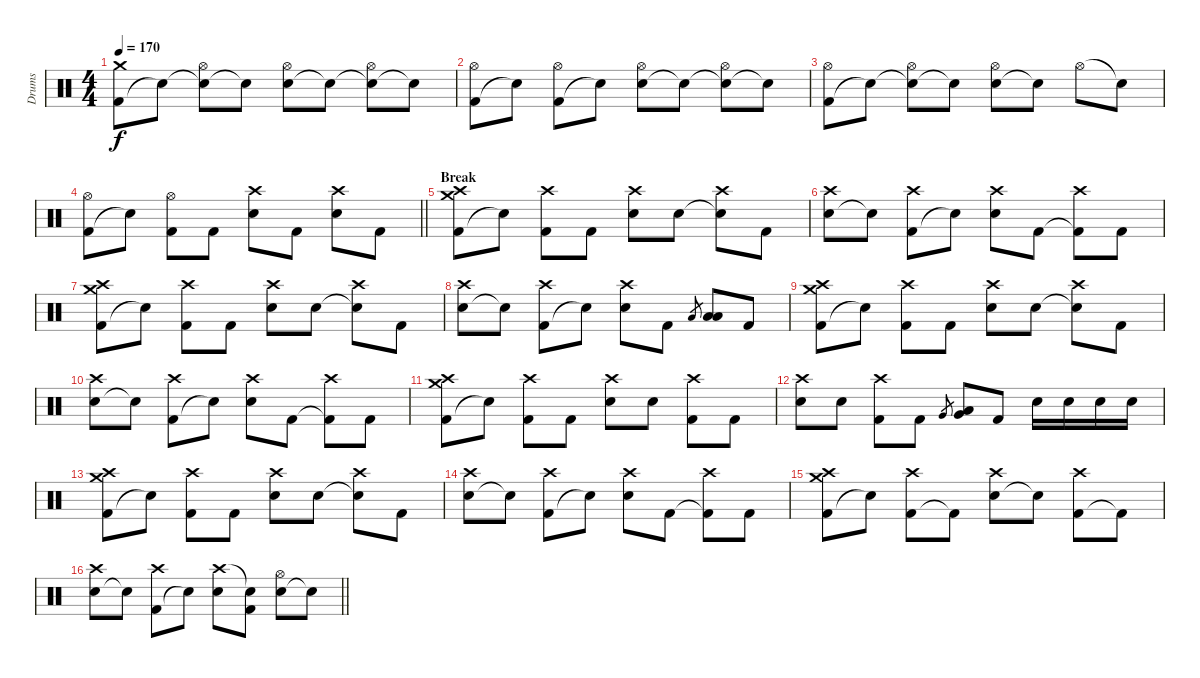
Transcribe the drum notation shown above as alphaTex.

\track ("Drums" "Drums") {instrument percussion}
\staff {score}
\articulation defaults
\ts (4 4)
\tempo 170
\clef neutral
\ks c
("Kick (hit) 2" "Crash medium (hit)").8{dy f} "Snare (hit)"{t}.8 ("Snare (hit)"{t} "Hi-Hat (open)").8 "Snare (hit)"{t}.8 ("Electric Snare (hit)" "Hi-Hat (open)").8 "Snare (hit)"{t}.8 ("Snare (hit)"{t} "Hi-Hat (open)").8 "Snare (hit)"{t}.8 |
("Kick (hit) 2" "Hi-Hat (open)").8 "Snare (hit)"{t}.8 ("Kick (hit) 2" "Hi-Hat (open)").8 "Snare (hit)"{t}.8 ("Electric Snare (hit)" "Hi-Hat (open)").8 "Snare (hit)"{t}.8 ("Snare (hit)"{t} "Hi-Hat (open)").8 "Snare (hit)"{t}.8 |
("Kick (hit) 2" "Hi-Hat (open)").8 "Snare (hit)"{t}.8 ("Snare (hit)"{t} "Hi-Hat (open)").8 "Snare (hit)"{t}.8 ("Electric Snare (hit)" "Hi-Hat (open)").8 "Snare (hit)"{t}.8 "Hi-Hat (open)".8 "Snare (hit)"{t}.8 |
\barLineRight lightlight
("Kick (hit) 2" "Hi-Hat (open)").8 "Snare (hit)"{t}.8 ("Kick (hit) 2" "Hi-Hat (open)").8 "Kick (hit) 2".8 ("Electric Snare (hit)" "Crash high (hit)").8 "Kick (hit) 2".8 ("Electric Snare (hit)" "Crash high (hit)").8 "Kick (hit) 2".8 |
\section ("" "Break")
("Kick (hit) 2" "Crash medium (hit)" "Crash high (hit)").8 "Snare (hit)"{t}.8 ("Kick (hit) 2" "Crash high (hit)").8 "Kick (hit) 2".8 ("Electric Snare (hit)" "Crash high (hit)").8 "Electric Snare (hit)".8 ("Snare (hit)"{t} "Crash high (hit)").8 "Kick (hit) 2".8 |
("Electric Snare (hit)" "Crash high (hit)").8 "Snare (hit)"{t}.8 ("Kick (hit) 2" "Crash high (hit)").8 "Electric Snare (hit)"{t}.8 ("Electric Snare (hit)" "Crash high (hit)").8 "Kick (hit) 2".8 ("Kick (hit) 2"{t} "Crash high (hit)").8 "Kick (hit) 2".8 |
("Kick (hit) 2" "Crash medium (hit)" "Crash high (hit)").8 "Snare (hit)"{t}.8 ("Kick (hit) 2" "Crash high (hit)").8 "Kick (hit) 2".8 ("Electric Snare (hit)" "Crash high (hit)").8 "Electric Snare (hit)".8 ("Snare (hit)"{t} "Crash high (hit)").8 "Kick (hit) 2".8 |
("Electric Snare (hit)" "Crash high (hit)").8 "Snare (hit)"{t}.8 ("Kick (hit) 2" "Crash high (hit)").8 "Electric Snare (hit)"{t}.8 ("Electric Snare (hit)" "Crash high (hit)").8 "Kick (hit) 2".8 "Low Tom (hit)".8{gr} ("Low Tom (hit)" "Low Floor Tom (hit)").8 "Kick (hit) 2".8 |
("Kick (hit) 2" "Crash medium (hit)" "Crash high (hit)").8 "Snare (hit)"{t}.8 ("Kick (hit) 2" "Crash high (hit)").8 "Kick (hit) 2".8 ("Electric Snare (hit)" "Crash high (hit)").8 "Electric Snare (hit)".8 ("Snare (hit)"{t} "Crash high (hit)").8 "Kick (hit) 2".8 |
("Electric Snare (hit)" "Crash high (hit)").8 "Snare (hit)"{t}.8 ("Kick (hit) 2" "Crash high (hit)").8 "Electric Snare (hit)"{t}.8 ("Electric Snare (hit)" "Crash high (hit)").8 "Kick (hit) 2".8 ("Kick (hit) 2"{t} "Crash high (hit)").8 "Kick (hit) 2".8 |
("Kick (hit) 2" "Crash medium (hit)" "Crash high (hit)").8 "Snare (hit)"{t}.8 ("Kick (hit) 2" "Crash high (hit)").8 "Kick (hit) 2".8 ("Electric Snare (hit)" "Crash high (hit)").8 "Electric Snare (hit)".8 ("Kick (hit) 2" "Crash high (hit)").8 "Kick (hit) 2".8 |
("Electric Snare (hit)" "Crash high (hit)").8 "Electric Snare (hit)".8 ("Kick (hit) 2" "Crash high (hit)").8 "Kick (hit) 2".8 "Very Low Tom (hit)".8{gr} ("Very Low Tom (hit)" "Low Floor Tom (hit)").8 "Kick (hit) 2".8 "Electric Snare (hit)".16 "Electric Snare (hit)".16 "Electric Snare (hit)".16 "Electric Snare (hit)".16 |
("Kick (hit) 2" "Crash medium (hit)" "Crash high (hit)").8 "Snare (hit)"{t}.8 ("Kick (hit) 2" "Crash high (hit)").8 "Kick (hit) 2".8 ("Electric Snare (hit)" "Crash high (hit)").8 "Electric Snare (hit)".8 ("Snare (hit)"{t} "Crash high (hit)").8 "Kick (hit) 2".8 |
("Electric Snare (hit)" "Crash high (hit)").8 "Snare (hit)"{t}.8 ("Kick (hit) 2" "Crash high (hit)").8 "Electric Snare (hit)"{t}.8 ("Electric Snare (hit)" "Crash high (hit)").8 "Kick (hit) 2".8 ("Kick (hit) 2"{t} "Crash high (hit)").8 "Kick (hit) 2".8 |
("Kick (hit) 2" "Crash medium (hit)" "Crash high (hit)").8 "Snare (hit)"{t}.8 ("Kick (hit) 2" "Crash high (hit)").8 "Kick (hit) 2"{t}.8 ("Electric Snare (hit)" "Crash high (hit)").8 "Electric Snare (hit)"{t}.8 ("Kick (hit) 2" "Crash high (hit)").8 "Kick (hit) 2"{t}.8 |
\barLineRight lightlight
("Electric Snare (hit)" "Crash high (hit)").8 "Snare (hit)"{t}.8 ("Kick (hit) 2" "Crash high (hit)").8 "Electric Snare (hit)"{t}.8 ("Electric Snare (hit)" "Crash high (hit)").8 ("Kick (hit) 2" "Snare (hit)"{t}).8 ("Electric Snare (hit)" "Hi-Hat (open)").8 "Snare (hit)"{t}.8
